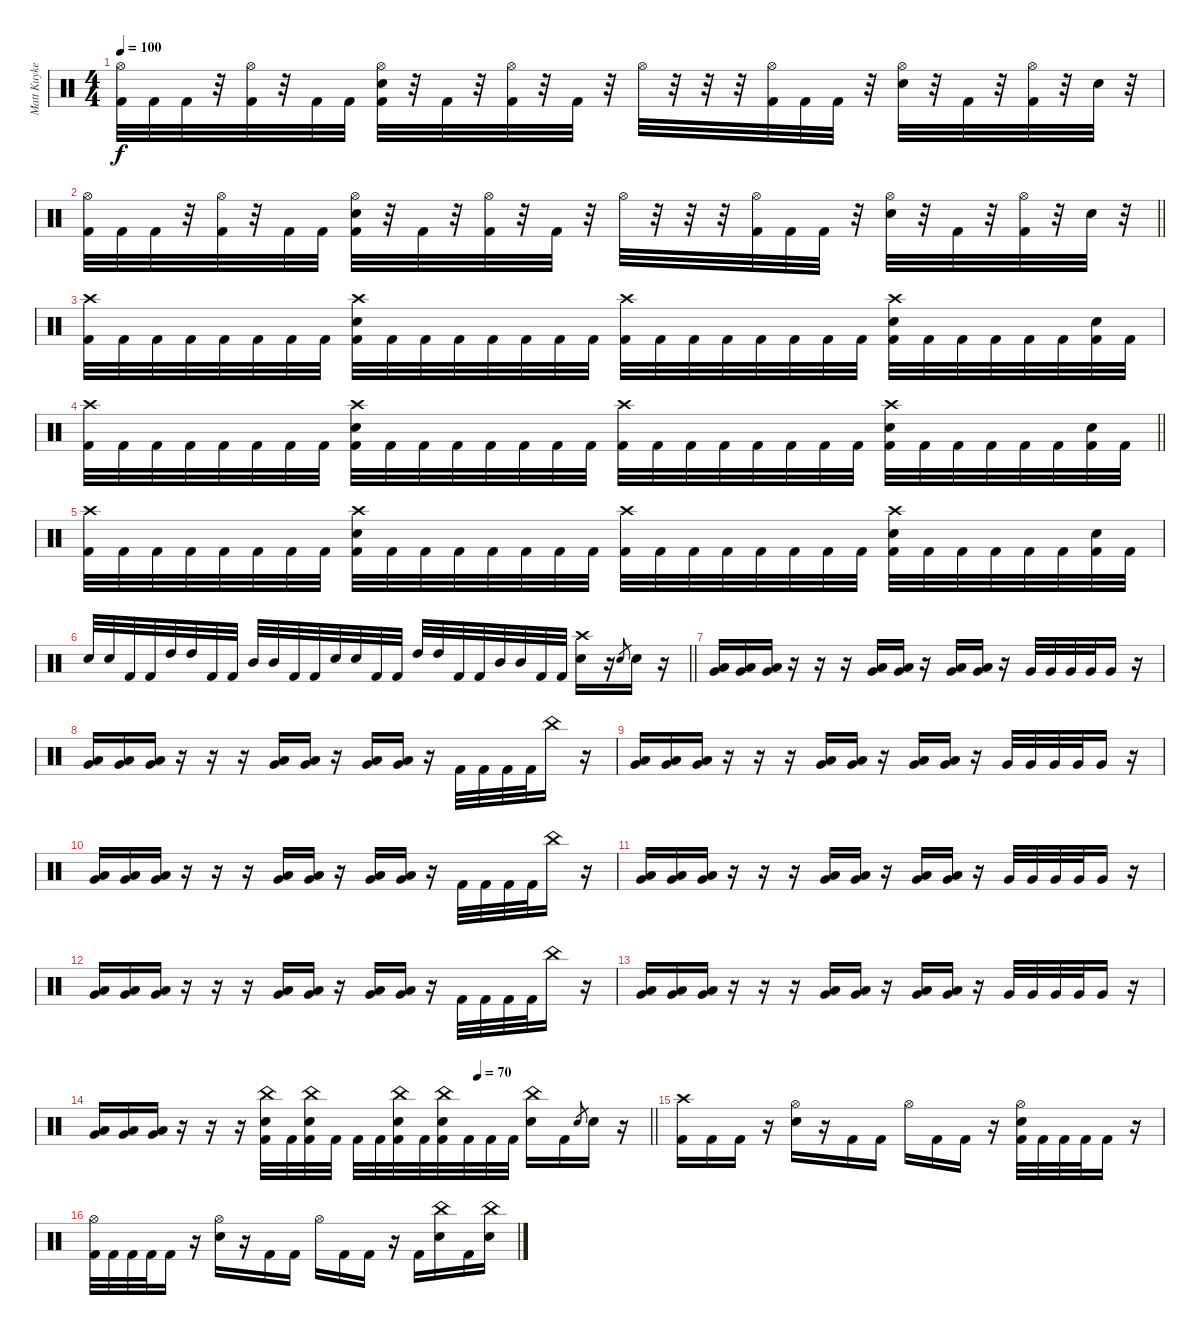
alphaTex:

\track ("Matt Kuykendall " "Matt Kuyke") {instrument percussion}
\staff {score}
\articulation defaults
\ts (4 4)
\tempo 100
\clef neutral
\ks c
("Hi-Hat (open)" "Kick (hit) 2").32{dy f} "Kick (hit) 2".32 "Kick (hit) 2".32 r.32 ("Hi-Hat (open)" "Kick (hit) 2").32 r.32 "Kick (hit) 2".32 "Kick (hit) 2".32 ("Hi-Hat (open)" "Snare (hit) 2" "Kick (hit) 2").32 r.32 "Kick (hit) 2".32 r.32 ("Hi-Hat (open)" "Kick (hit) 2").32 r.32 "Kick (hit) 2".32 r.32 "Hi-Hat (open)".32 r.32 r.32 r.32 ("Hi-Hat (open)" "Kick (hit) 2").32 "Kick (hit) 2".32 "Kick (hit) 2".32 r.32 ("Hi-Hat (open)" "Snare (hit) 2").32 r.32 "Kick (hit) 2".32 r.32 ("Hi-Hat (open)" "Kick (hit) 2").32 r.32 "Snare (hit) 2".32 r.32 |
\barLineRight lightlight
("Hi-Hat (open)" "Kick (hit) 2").32 "Kick (hit) 2".32 "Kick (hit) 2".32 r.32 ("Hi-Hat (open)" "Kick (hit) 2").32 r.32 "Kick (hit) 2".32 "Kick (hit) 2".32 ("Hi-Hat (open)" "Snare (hit) 2" "Kick (hit) 2").32 r.32 "Kick (hit) 2".32 r.32 ("Hi-Hat (open)" "Kick (hit) 2").32 r.32 "Kick (hit) 2".32 r.32 "Hi-Hat (open)".32 r.32 r.32 r.32 ("Hi-Hat (open)" "Kick (hit) 2").32 "Kick (hit) 2".32 "Kick (hit) 2".32 r.32 ("Hi-Hat (open)" "Snare (hit) 2").32 r.32 "Kick (hit) 2".32 r.32 ("Hi-Hat (open)" "Kick (hit) 2").32 r.32 "Snare (hit) 2".32 r.32 |
("Crash high (hit)" "Kick (hit) 2").32 "Kick (hit) 2".32 "Kick (hit) 2".32 "Kick (hit) 2".32 "Kick (hit) 2".32 "Kick (hit) 2".32 "Kick (hit) 2".32 "Kick (hit) 2".32 ("Crash high (hit)" "Snare (hit) 2" "Kick (hit) 2").32 "Kick (hit) 2".32 "Kick (hit) 2".32 "Kick (hit) 2".32 "Kick (hit) 2".32 "Kick (hit) 2".32 "Kick (hit) 2".32 "Kick (hit) 2".32 ("Crash high (hit)" "Kick (hit) 2").32 "Kick (hit) 2".32 "Kick (hit) 2".32 "Kick (hit) 2".32 "Kick (hit) 2".32 "Kick (hit) 2".32 "Kick (hit) 2".32 "Kick (hit) 2".32 ("Crash high (hit)" "Snare (hit) 2" "Kick (hit) 2").32 "Kick (hit) 2".32 "Kick (hit) 2".32 "Kick (hit) 2".32 "Kick (hit) 2".32 "Kick (hit) 2".32 ("Snare (hit) 2" "Kick (hit) 2").32 "Kick (hit) 2".32 |
\barLineRight lightlight
("Crash high (hit)" "Kick (hit) 2").32 "Kick (hit) 2".32 "Kick (hit) 2".32 "Kick (hit) 2".32 "Kick (hit) 2".32 "Kick (hit) 2".32 "Kick (hit) 2".32 "Kick (hit) 2".32 ("Crash high (hit)" "Snare (hit) 2" "Kick (hit) 2").32 "Kick (hit) 2".32 "Kick (hit) 2".32 "Kick (hit) 2".32 "Kick (hit) 2".32 "Kick (hit) 2".32 "Kick (hit) 2".32 "Kick (hit) 2".32 ("Crash high (hit)" "Kick (hit) 2").32 "Kick (hit) 2".32 "Kick (hit) 2".32 "Kick (hit) 2".32 "Kick (hit) 2".32 "Kick (hit) 2".32 "Kick (hit) 2".32 "Kick (hit) 2".32 ("Crash high (hit)" "Snare (hit) 2" "Kick (hit) 2").32 "Kick (hit) 2".32 "Kick (hit) 2".32 "Kick (hit) 2".32 "Kick (hit) 2".32 "Kick (hit) 2".32 ("Snare (hit) 2" "Kick (hit) 2").32 "Kick (hit) 2".32 |
("Crash high (hit)" "Kick (hit) 2").32 "Kick (hit) 2".32 "Kick (hit) 2".32 "Kick (hit) 2".32 "Kick (hit) 2".32 "Kick (hit) 2".32 "Kick (hit) 2".32 "Kick (hit) 2".32 ("Crash high (hit)" "Snare (hit) 2" "Kick (hit) 2").32 "Kick (hit) 2".32 "Kick (hit) 2".32 "Kick (hit) 2".32 "Kick (hit) 2".32 "Kick (hit) 2".32 "Kick (hit) 2".32 "Kick (hit) 2".32 ("Crash high (hit)" "Kick (hit) 2").32 "Kick (hit) 2".32 "Kick (hit) 2".32 "Kick (hit) 2".32 "Kick (hit) 2".32 "Kick (hit) 2".32 "Kick (hit) 2".32 "Kick (hit) 2".32 ("Crash high (hit)" "Snare (hit) 2" "Kick (hit) 2").32 "Kick (hit) 2".32 "Kick (hit) 2".32 "Kick (hit) 2".32 "Kick (hit) 2".32 "Kick (hit) 2".32 ("Snare (hit) 2" "Kick (hit) 2").32 "Kick (hit) 2".32 |
\barLineRight lightlight "Snare (hit) 2".32 "Snare (hit) 2".32 "Kick (hit) 2".32 "Kick (hit) 2".32 "High Tom (hit)".32 "High Tom (hit)".32 "Kick (hit) 2".32 "Kick (hit) 2".32 "Mid Tom (hit)".32 "Mid Tom (hit)".32 "Kick (hit) 2".32 "Kick (hit) 2".32 "Snare (hit) 2".32 "Snare (hit) 2".32 "Kick (hit) 2".32 "Kick (hit) 2".32 "High Tom (hit)".32 "High Tom (hit)".32 "Kick (hit) 2".32 "Kick (hit) 2".32 "Mid Tom (hit)".32 "Mid Tom (hit)".32 "Kick (hit) 2".32 "Kick (hit) 2".32
("Crash high (hit)" "Snare (hit) 2").16 r.16 "Snare (hit) 2".8{gr} "Snare (hit) 2".16 r.16 |
\section ("" "")
("Low Tom (hit)" "Very Low Tom (hit)").16 ("Low Tom (hit)" "Very Low Tom (hit)").16 ("Low Tom (hit)" "Very Low Tom (hit)").16 r.16 r.16 r.16 ("Low Tom (hit)" "Very Low Tom (hit)").16 ("Low Tom (hit)" "Very Low Tom (hit)").16 r.16 ("Low Tom (hit)" "Very Low Tom (hit)").16 ("Low Tom (hit)" "Very Low Tom (hit)").16 r.16 "Very Low Tom (hit)".32 "Very Low Tom (hit)".32 "Very Low Tom (hit)".32 "Very Low Tom (hit)".32 "Very Low Tom (hit)".16 r.16 |
("Low Tom (hit)" "Very Low Tom (hit)").16 ("Low Tom (hit)" "Very Low Tom (hit)").16 ("Low Tom (hit)" "Very Low Tom (hit)").16 r.16 r.16 r.16 ("Low Tom (hit)" "Very Low Tom (hit)").16 ("Low Tom (hit)" "Very Low Tom (hit)").16 r.16 ("Low Tom (hit)" "Very Low Tom (hit)").16 ("Low Tom (hit)" "Very Low Tom (hit)").16 r.16 "Kick (hit) 2".32 "Kick (hit) 2".32 "Kick (hit) 2".32 "Kick (hit) 2".32 "China (hit)".16 r.16 |
("Low Tom (hit)" "Very Low Tom (hit)").16 ("Low Tom (hit)" "Very Low Tom (hit)").16 ("Low Tom (hit)" "Very Low Tom (hit)").16 r.16 r.16 r.16 ("Low Tom (hit)" "Very Low Tom (hit)").16 ("Low Tom (hit)" "Very Low Tom (hit)").16 r.16 ("Low Tom (hit)" "Very Low Tom (hit)").16 ("Low Tom (hit)" "Very Low Tom (hit)").16 r.16 "Very Low Tom (hit)".32 "Very Low Tom (hit)".32 "Very Low Tom (hit)".32 "Very Low Tom (hit)".32 "Very Low Tom (hit)".16 r.16 |
("Low Tom (hit)" "Very Low Tom (hit)").16 ("Low Tom (hit)" "Very Low Tom (hit)").16 ("Low Tom (hit)" "Very Low Tom (hit)").16 r.16 r.16 r.16 ("Low Tom (hit)" "Very Low Tom (hit)").16 ("Low Tom (hit)" "Very Low Tom (hit)").16 r.16 ("Low Tom (hit)" "Very Low Tom (hit)").16 ("Low Tom (hit)" "Very Low Tom (hit)").16 r.16 "Kick (hit) 2".32 "Kick (hit) 2".32 "Kick (hit) 2".32 "Kick (hit) 2".32 "China (hit)".16 r.16 |
("Low Tom (hit)" "Very Low Tom (hit)").16 ("Low Tom (hit)" "Very Low Tom (hit)").16 ("Low Tom (hit)" "Very Low Tom (hit)").16 r.16 r.16 r.16 ("Low Tom (hit)" "Very Low Tom (hit)").16 ("Low Tom (hit)" "Very Low Tom (hit)").16 r.16 ("Low Tom (hit)" "Very Low Tom (hit)").16 ("Low Tom (hit)" "Very Low Tom (hit)").16 r.16 "Very Low Tom (hit)".32 "Very Low Tom (hit)".32 "Very Low Tom (hit)".32 "Very Low Tom (hit)".32 "Very Low Tom (hit)".16 r.16 |
("Low Tom (hit)" "Very Low Tom (hit)").16 ("Low Tom (hit)" "Very Low Tom (hit)").16 ("Low Tom (hit)" "Very Low Tom (hit)").16 r.16 r.16 r.16 ("Low Tom (hit)" "Very Low Tom (hit)").16 ("Low Tom (hit)" "Very Low Tom (hit)").16 r.16 ("Low Tom (hit)" "Very Low Tom (hit)").16 ("Low Tom (hit)" "Very Low Tom (hit)").16 r.16 "Kick (hit) 2".32 "Kick (hit) 2".32 "Kick (hit) 2".32 "Kick (hit) 2".32 "China (hit)".16 r.16 |
("Low Tom (hit)" "Very Low Tom (hit)").16 ("Low Tom (hit)" "Very Low Tom (hit)").16 ("Low Tom (hit)" "Very Low Tom (hit)").16 r.16 r.16 r.16 ("Low Tom (hit)" "Very Low Tom (hit)").16 ("Low Tom (hit)" "Very Low Tom (hit)").16 r.16 ("Low Tom (hit)" "Very Low Tom (hit)").16 ("Low Tom (hit)" "Very Low Tom (hit)").16 r.16 "Very Low Tom (hit)".32 "Very Low Tom (hit)".32 "Very Low Tom (hit)".32 "Very Low Tom (hit)".32 "Very Low Tom (hit)".16 r.16 |
\tempo (70 0.6875)
\barLineRight lightlight
("Low Tom (hit)" "Very Low Tom (hit)").16 ("Low Tom (hit)" "Very Low Tom (hit)").16 ("Low Tom (hit)" "Very Low Tom (hit)").16 r.16 r.16 r.16 ("China (hit)" "Snare (hit) 2" "Kick (hit) 2").32 "Kick (hit) 2".32 ("China (hit)" "Snare (hit) 2" "Kick (hit) 2").32 "Kick (hit) 2".32 "Kick (hit) 2".32 "Kick (hit) 2".32 ("China (hit)" "Snare (hit) 2" "Kick (hit) 2").32 "Kick (hit) 2".32 ("China (hit)" "Snare (hit) 2" "Kick (hit) 2").32 "Kick (hit) 2".32 "Kick (hit) 2".32 "Kick (hit) 2".32 ("China (hit)" "Snare (hit) 2").16 "Kick (hit) 2".16 "Snare (hit) 2".8{gr} "Snare (hit) 2".16 r.16 |
\section ("" "")
("Crash high (hit)" "Kick (hit) 2").16 "Kick (hit) 2".16 "Kick (hit) 2".16 r.16 ("Hi-Hat (open)" "Snare (hit) 2").16 r.16 "Kick (hit) 2".16 "Kick (hit) 2".16 "Hi-Hat (open)".16 "Kick (hit) 2".16 "Kick (hit) 2".16 r.16 ("Hi-Hat (open)" "Snare (hit) 2" "Kick (hit) 2").32 "Kick (hit) 2".32 "Kick (hit) 2".32 "Kick (hit) 2".32 "Kick (hit) 2".16 r.16 |
("Hi-Hat (open)" "Kick (hit) 2").32 "Kick (hit) 2".32 "Kick (hit) 2".32 "Kick (hit) 2".32 "Kick (hit) 2".16 r.16 ("Hi-Hat (open)" "Snare (hit) 2").16 r.16 "Kick (hit) 2".16 "Kick (hit) 2".16 "Hi-Hat (open)".16 "Kick (hit) 2".16 "Kick (hit) 2".16 r.16 "Kick (hit) 2".16 ("China (hit)" "Snare (hit) 2").16 "Kick (hit) 2".16 ("China (hit)" "Snare (hit) 2").16
